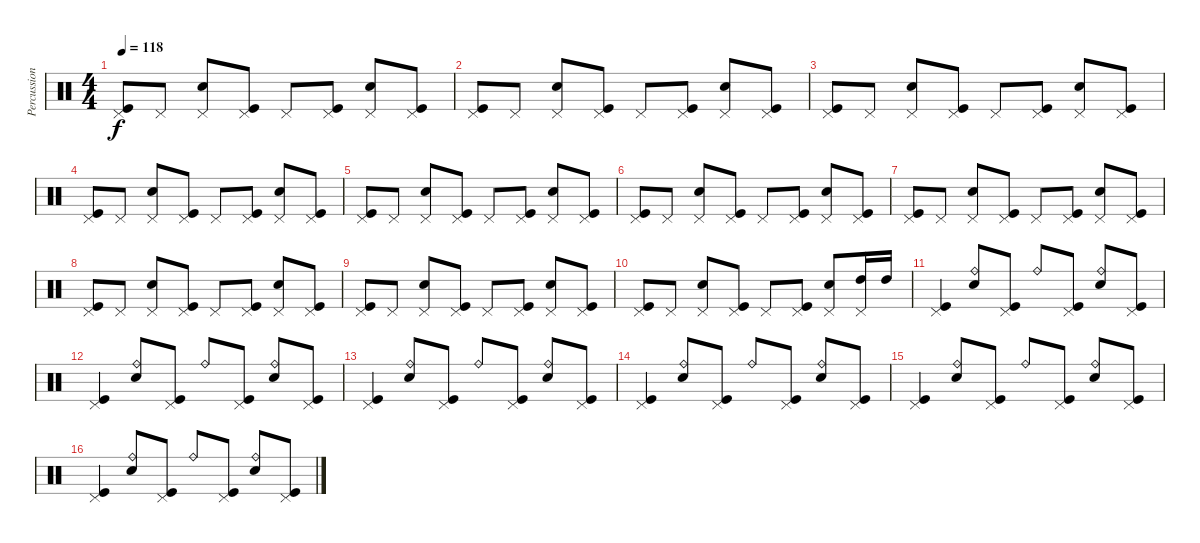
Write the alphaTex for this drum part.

\track ("Percussions" "Percussion") {instrument percussion}
\staff {score}
\articulation defaults
\ts (4 4)
\tempo 118
\clef neutral
\ks c
("Pedal Hi-Hat (hit)" "Kick (hit)").8{dy f} "Pedal Hi-Hat (hit)".8 ("Pedal Hi-Hat (hit)" "Snare (hit) 2").8 ("Pedal Hi-Hat (hit)" "Kick (hit)").8 "Pedal Hi-Hat (hit)".8 ("Pedal Hi-Hat (hit)" "Kick (hit)").8 ("Pedal Hi-Hat (hit)" "Snare (hit) 2").8 ("Pedal Hi-Hat (hit)" "Kick (hit)").8 |
("Pedal Hi-Hat (hit)" "Kick (hit)").8 "Pedal Hi-Hat (hit)".8 ("Pedal Hi-Hat (hit)" "Snare (hit) 2").8 ("Pedal Hi-Hat (hit)" "Kick (hit)").8 "Pedal Hi-Hat (hit)".8 ("Pedal Hi-Hat (hit)" "Kick (hit)").8 ("Pedal Hi-Hat (hit)" "Snare (hit) 2").8 ("Pedal Hi-Hat (hit)" "Kick (hit)").8 |
("Pedal Hi-Hat (hit)" "Kick (hit)").8 "Pedal Hi-Hat (hit)".8 ("Pedal Hi-Hat (hit)" "Snare (hit) 2").8 ("Pedal Hi-Hat (hit)" "Kick (hit)").8 "Pedal Hi-Hat (hit)".8 ("Pedal Hi-Hat (hit)" "Kick (hit)").8 ("Pedal Hi-Hat (hit)" "Snare (hit) 2").8 ("Pedal Hi-Hat (hit)" "Kick (hit)").8 |
("Pedal Hi-Hat (hit)" "Kick (hit)").8 "Pedal Hi-Hat (hit)".8 ("Pedal Hi-Hat (hit)" "Snare (hit) 2").8 ("Pedal Hi-Hat (hit)" "Kick (hit)").8 "Pedal Hi-Hat (hit)".8 ("Pedal Hi-Hat (hit)" "Kick (hit)").8 ("Pedal Hi-Hat (hit)" "Snare (hit) 2").8 ("Pedal Hi-Hat (hit)" "Kick (hit)").8 |
("Pedal Hi-Hat (hit)" "Kick (hit)").8 "Pedal Hi-Hat (hit)".8 ("Pedal Hi-Hat (hit)" "Snare (hit) 2").8 ("Pedal Hi-Hat (hit)" "Kick (hit)").8 "Pedal Hi-Hat (hit)".8 ("Pedal Hi-Hat (hit)" "Kick (hit)").8 ("Pedal Hi-Hat (hit)" "Snare (hit) 2").8 ("Pedal Hi-Hat (hit)" "Kick (hit)").8 |
("Pedal Hi-Hat (hit)" "Kick (hit)").8 "Pedal Hi-Hat (hit)".8 ("Pedal Hi-Hat (hit)" "Snare (hit) 2").8 ("Pedal Hi-Hat (hit)" "Kick (hit)").8 "Pedal Hi-Hat (hit)".8 ("Pedal Hi-Hat (hit)" "Kick (hit)").8 ("Pedal Hi-Hat (hit)" "Snare (hit) 2").8 ("Pedal Hi-Hat (hit)" "Kick (hit)").8 |
("Pedal Hi-Hat (hit)" "Kick (hit)").8 "Pedal Hi-Hat (hit)".8 ("Pedal Hi-Hat (hit)" "Snare (hit) 2").8 ("Pedal Hi-Hat (hit)" "Kick (hit)").8 "Pedal Hi-Hat (hit)".8 ("Pedal Hi-Hat (hit)" "Kick (hit)").8 ("Pedal Hi-Hat (hit)" "Snare (hit) 2").8 ("Pedal Hi-Hat (hit)" "Kick (hit)").8 |
("Pedal Hi-Hat (hit)" "Kick (hit)").8 "Pedal Hi-Hat (hit)".8 ("Pedal Hi-Hat (hit)" "Snare (hit) 2").8 ("Pedal Hi-Hat (hit)" "Kick (hit)").8 "Pedal Hi-Hat (hit)".8 ("Pedal Hi-Hat (hit)" "Kick (hit)").8 ("Pedal Hi-Hat (hit)" "Snare (hit) 2").8 ("Pedal Hi-Hat (hit)" "Kick (hit)").8 |
("Pedal Hi-Hat (hit)" "Kick (hit)").8 "Pedal Hi-Hat (hit)".8 ("Pedal Hi-Hat (hit)" "Snare (hit) 2").8 ("Pedal Hi-Hat (hit)" "Kick (hit)").8 "Pedal Hi-Hat (hit)".8 ("Pedal Hi-Hat (hit)" "Kick (hit)").8 ("Pedal Hi-Hat (hit)" "Snare (hit) 2").8 ("Pedal Hi-Hat (hit)" "Kick (hit)").8 |
("Pedal Hi-Hat (hit)" "Kick (hit)").8 "Pedal Hi-Hat (hit)".8 ("Pedal Hi-Hat (hit)" "Snare (hit) 2").8 ("Pedal Hi-Hat (hit)" "Kick (hit)").8 "Pedal Hi-Hat (hit)".8 ("Pedal Hi-Hat (hit)" "Kick (hit)").8 ("Pedal Hi-Hat (hit)" "Snare (hit) 2").8 ("Pedal Hi-Hat (hit)" "High Tom (hit)").16 "High Tom (hit)".16 |
("Pedal Hi-Hat (hit)" "Kick (hit)").4 ("Ride (bell)" "Snare (hit) 2").8 ("Pedal Hi-Hat (hit)" "Kick (hit)").8 "Ride (bell)".8 ("Pedal Hi-Hat (hit)" "Kick (hit)").8 ("Ride (bell)" "Snare (hit) 2").8 ("Pedal Hi-Hat (hit)" "Kick (hit)").8 |
("Pedal Hi-Hat (hit)" "Kick (hit)").4 ("Ride (bell)" "Snare (hit) 2").8 ("Pedal Hi-Hat (hit)" "Kick (hit)").8 "Ride (bell)".8 ("Pedal Hi-Hat (hit)" "Kick (hit)").8 ("Ride (bell)" "Snare (hit) 2").8 ("Pedal Hi-Hat (hit)" "Kick (hit)").8 |
("Pedal Hi-Hat (hit)" "Kick (hit)").4 ("Ride (bell)" "Snare (hit) 2").8 ("Pedal Hi-Hat (hit)" "Kick (hit)").8 "Ride (bell)".8 ("Pedal Hi-Hat (hit)" "Kick (hit)").8 ("Ride (bell)" "Snare (hit) 2").8 ("Pedal Hi-Hat (hit)" "Kick (hit)").8 |
("Pedal Hi-Hat (hit)" "Kick (hit)").4 ("Ride (bell)" "Snare (hit) 2").8 ("Pedal Hi-Hat (hit)" "Kick (hit)").8 "Ride (bell)".8 ("Pedal Hi-Hat (hit)" "Kick (hit)").8 ("Ride (bell)" "Snare (hit) 2").8 ("Pedal Hi-Hat (hit)" "Kick (hit)").8 |
("Pedal Hi-Hat (hit)" "Kick (hit)").4 ("Ride (bell)" "Snare (hit) 2").8 ("Pedal Hi-Hat (hit)" "Kick (hit)").8 "Ride (bell)".8 ("Pedal Hi-Hat (hit)" "Kick (hit)").8 ("Ride (bell)" "Snare (hit) 2").8 ("Pedal Hi-Hat (hit)" "Kick (hit)").8 |
("Pedal Hi-Hat (hit)" "Kick (hit)").4 ("Ride (bell)" "Snare (hit) 2").8 ("Pedal Hi-Hat (hit)" "Kick (hit)").8 "Ride (bell)".8 ("Pedal Hi-Hat (hit)" "Kick (hit)").8 ("Ride (bell)" "Snare (hit) 2").8 ("Pedal Hi-Hat (hit)" "Kick (hit)").8
